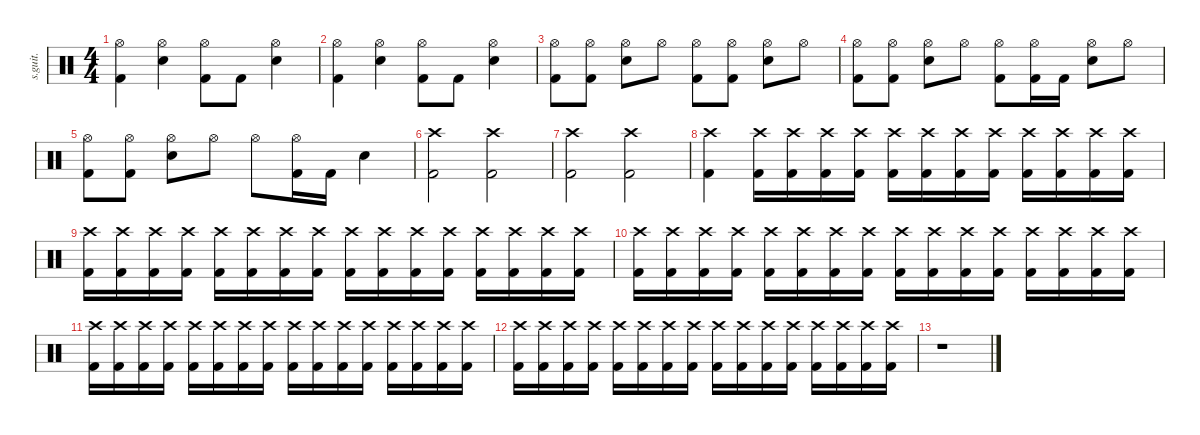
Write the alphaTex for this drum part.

\defaultSystemsLayout 4
\hideDynamics
\bracketExtendMode nobrackets
\track ("" "s.guit.") {instrument percussion}
\staff {score}
\articulation defaults
\ts (4 4)
\tempo (153 hide)
\clef neutral
\ks c
("Hi-Hat (open)" "Kick (hit) 2").4{dy f} ("Hi-Hat (open)" "Snare (hit) 2").4 ("Hi-Hat (open)" "Kick (hit) 2").8 "Kick (hit) 2".8 ("Hi-Hat (open)" "Snare (hit) 2").4 |
("Hi-Hat (open)" "Kick (hit) 2").4 ("Hi-Hat (open)" "Snare (hit) 2").4 ("Hi-Hat (open)" "Kick (hit) 2").8 "Kick (hit) 2".8 ("Hi-Hat (open)" "Snare (hit) 2").4 |
("Hi-Hat (open)" "Kick (hit) 2").8 ("Hi-Hat (open)" "Kick (hit) 2").8 ("Hi-Hat (open)" "Snare (hit) 2").8 "Hi-Hat (open)".8 ("Hi-Hat (open)" "Kick (hit) 2").8 ("Hi-Hat (open)" "Kick (hit) 2").8 ("Hi-Hat (open)" "Snare (hit) 2").8 "Hi-Hat (open)".8 |
("Hi-Hat (open)" "Kick (hit) 2").8 ("Hi-Hat (open)" "Kick (hit) 2").8 ("Hi-Hat (open)" "Snare (hit) 2").8 "Hi-Hat (open)".8 ("Hi-Hat (open)" "Kick (hit) 2").8 ("Hi-Hat (open)" "Kick (hit) 2").16 "Kick (hit) 2".16 ("Hi-Hat (open)" "Snare (hit) 2").8 "Hi-Hat (open)".8 |
("Hi-Hat (open)" "Kick (hit) 2").8 ("Hi-Hat (open)" "Kick (hit) 2").8 ("Hi-Hat (open)" "Snare (hit) 2").8 "Hi-Hat (open)".8 "Hi-Hat (open)".8 ("Hi-Hat (open)" "Kick (hit) 2").16 "Kick (hit) 2".16 "Snare (hit) 2".4 |
("Crash high (hit)" "Kick (hit) 2").2 ("Crash high (hit)" "Kick (hit) 2").2 |
("Crash high (hit)" "Kick (hit) 2").2 ("Crash high (hit)" "Kick (hit) 2").2 |
("Crash high (hit)" "Kick (hit) 2").4 ("Crash high (hit)" "Kick (hit) 2").16 ("Crash high (hit)" "Kick (hit) 2").16 ("Crash high (hit)" "Kick (hit) 2").16 ("Crash high (hit)" "Kick (hit) 2").16 ("Crash high (hit)" "Kick (hit) 2").16 ("Crash high (hit)" "Kick (hit) 2").16 ("Crash high (hit)" "Kick (hit) 2").16 ("Crash high (hit)" "Kick (hit) 2").16 ("Crash high (hit)" "Kick (hit) 2").16 ("Crash high (hit)" "Kick (hit) 2").16 ("Crash high (hit)" "Kick (hit) 2").16 ("Crash high (hit)" "Kick (hit) 2").16 |
("Crash high (hit)" "Kick (hit) 2").16 ("Crash high (hit)" "Kick (hit) 2").16 ("Crash high (hit)" "Kick (hit) 2").16 ("Crash high (hit)" "Kick (hit) 2").16 ("Crash high (hit)" "Kick (hit) 2").16 ("Crash high (hit)" "Kick (hit) 2").16 ("Crash high (hit)" "Kick (hit) 2").16 ("Crash high (hit)" "Kick (hit) 2").16 ("Crash high (hit)" "Kick (hit) 2").16 ("Crash high (hit)" "Kick (hit) 2").16 ("Crash high (hit)" "Kick (hit) 2").16 ("Crash high (hit)" "Kick (hit) 2").16 ("Crash high (hit)" "Kick (hit) 2").16 ("Crash high (hit)" "Kick (hit) 2").16 ("Crash high (hit)" "Kick (hit) 2").16 ("Crash high (hit)" "Kick (hit) 2").16 |
("Crash high (hit)" "Kick (hit) 2").16 ("Crash high (hit)" "Kick (hit) 2").16 ("Crash high (hit)" "Kick (hit) 2").16 ("Crash high (hit)" "Kick (hit) 2").16 ("Crash high (hit)" "Kick (hit) 2").16 ("Crash high (hit)" "Kick (hit) 2").16 ("Crash high (hit)" "Kick (hit) 2").16 ("Crash high (hit)" "Kick (hit) 2").16 ("Crash high (hit)" "Kick (hit) 2").16 ("Crash high (hit)" "Kick (hit) 2").16 ("Crash high (hit)" "Kick (hit) 2").16 ("Crash high (hit)" "Kick (hit) 2").16 ("Crash high (hit)" "Kick (hit) 2").16 ("Crash high (hit)" "Kick (hit) 2").16 ("Crash high (hit)" "Kick (hit) 2").16 ("Crash high (hit)" "Kick (hit) 2").16 |
("Crash high (hit)" "Kick (hit) 2").16 ("Crash high (hit)" "Kick (hit) 2").16 ("Crash high (hit)" "Kick (hit) 2").16 ("Crash high (hit)" "Kick (hit) 2").16 ("Crash high (hit)" "Kick (hit) 2").16 ("Crash high (hit)" "Kick (hit) 2").16 ("Crash high (hit)" "Kick (hit) 2").16 ("Crash high (hit)" "Kick (hit) 2").16 ("Crash high (hit)" "Kick (hit) 2").16 ("Crash high (hit)" "Kick (hit) 2").16 ("Crash high (hit)" "Kick (hit) 2").16 ("Crash high (hit)" "Kick (hit) 2").16 ("Crash high (hit)" "Kick (hit) 2").16 ("Crash high (hit)" "Kick (hit) 2").16 ("Crash high (hit)" "Kick (hit) 2").16 ("Crash high (hit)" "Kick (hit) 2").16 |
("Crash high (hit)" "Kick (hit) 2").16 ("Crash high (hit)" "Kick (hit) 2").16 ("Crash high (hit)" "Kick (hit) 2").16 ("Crash high (hit)" "Kick (hit) 2").16 ("Crash high (hit)" "Kick (hit) 2").16 ("Crash high (hit)" "Kick (hit) 2").16 ("Crash high (hit)" "Kick (hit) 2").16 ("Crash high (hit)" "Kick (hit) 2").16 ("Crash high (hit)" "Kick (hit) 2").16 ("Crash high (hit)" "Kick (hit) 2").16 ("Crash high (hit)" "Kick (hit) 2").16 ("Crash high (hit)" "Kick (hit) 2").16 ("Crash high (hit)" "Kick (hit) 2").16 ("Crash high (hit)" "Kick (hit) 2").16 ("Crash high (hit)" "Kick (hit) 2").16 ("Crash high (hit)" "Kick (hit) 2").16 |
r.1
